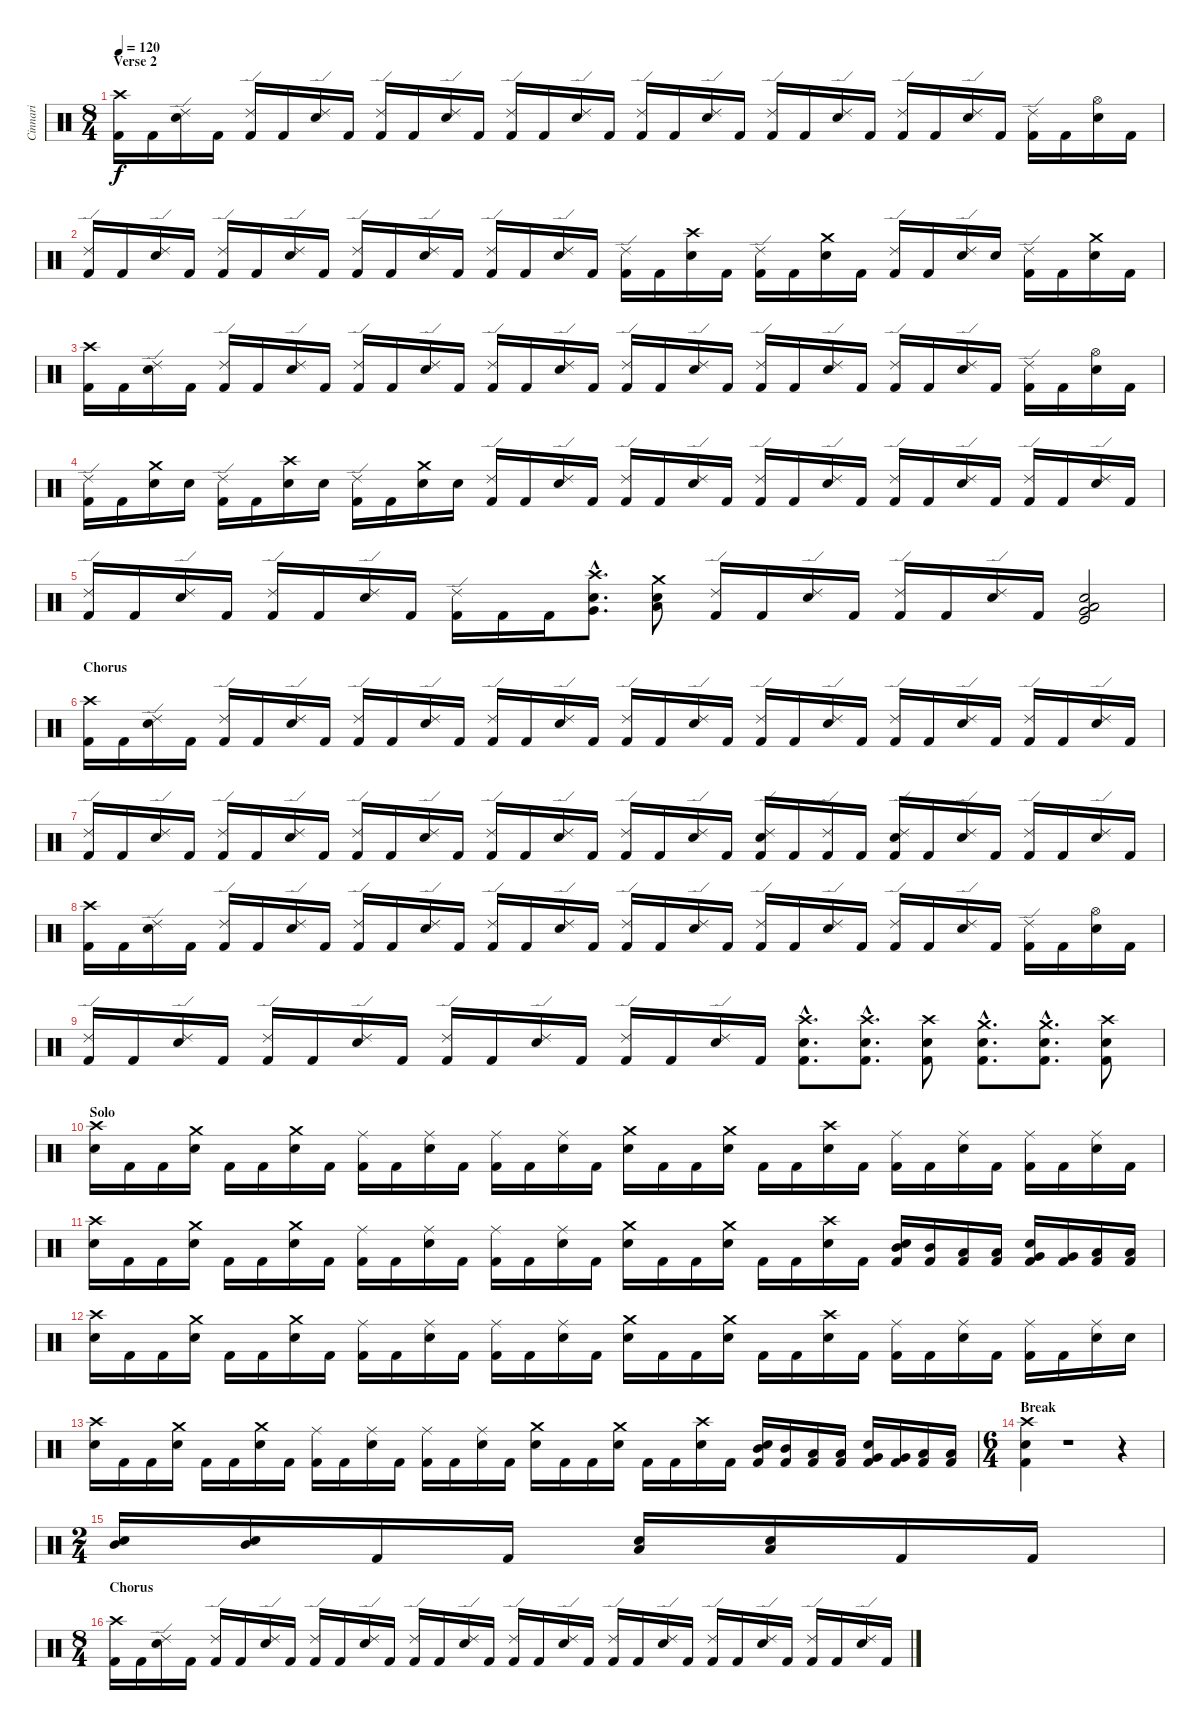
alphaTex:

\track ("Cinnari" "Cinnari") {instrument percussion}
\staff {score}
\articulation defaults
\ts (8 4)
\section ("" "Verse 2")
\tempo 120
\clef neutral
\ks c
("Crash high (hit)" "Kick (hit) 2").16{dy f} "Kick (hit) 2".16 ("Ride (edge) 2" "Snare (hit) 2").16 "Kick (hit) 2".16 ("Ride (edge) 2" "Kick (hit) 2").16 "Kick (hit) 2".16 ("Ride (edge) 2" "Snare (hit) 2").16 "Kick (hit) 2".16 ("Ride (edge) 2" "Kick (hit) 2").16 "Kick (hit) 2".16 ("Ride (edge) 2" "Snare (hit) 2").16 "Kick (hit) 2".16 ("Ride (edge) 2" "Kick (hit) 2").16 "Kick (hit) 2".16 ("Ride (edge) 2" "Snare (hit) 2").16 "Kick (hit) 2".16 ("Ride (edge) 2" "Kick (hit) 2").16 "Kick (hit) 2".16 ("Ride (edge) 2" "Snare (hit) 2").16 "Kick (hit) 2".16 ("Ride (edge) 2" "Kick (hit) 2").16 "Kick (hit) 2".16 ("Ride (edge) 2" "Snare (hit) 2").16 "Kick (hit) 2".16 ("Ride (edge) 2" "Kick (hit) 2").16 "Kick (hit) 2".16 ("Ride (edge) 2" "Snare (hit) 2").16 "Kick (hit) 2".16 ("Ride (edge) 2" "Kick (hit) 2").16 "Kick (hit) 2".16 ("Hi-Hat (open)" "Snare (hit) 2").16 "Kick (hit) 2".16 |
("Ride (edge) 2" "Kick (hit) 2").16 "Kick (hit) 2".16 ("Ride (edge) 2" "Snare (hit) 2").16 "Kick (hit) 2".16 ("Ride (edge) 2" "Kick (hit) 2").16 "Kick (hit) 2".16 ("Ride (edge) 2" "Snare (hit) 2").16 "Kick (hit) 2".16 ("Ride (edge) 2" "Kick (hit) 2").16 "Kick (hit) 2".16 ("Ride (edge) 2" "Snare (hit) 2").16 "Kick (hit) 2".16 ("Ride (edge) 2" "Kick (hit) 2").16 "Kick (hit) 2".16 ("Ride (edge) 2" "Snare (hit) 2").16 "Kick (hit) 2".16 ("Ride (edge) 2" "Kick (hit) 2").16 "Kick (hit) 2".16 ("Crash high (hit)" "Snare (hit) 2").16 "Kick (hit) 2".16 ("Ride (edge) 2" "Kick (hit) 2").16 "Kick (hit) 2".16 ("Crash medium (hit)" "Snare (hit) 2").16 "Kick (hit) 2".16 ("Ride (edge) 2" "Kick (hit) 2").16 "Kick (hit) 2".16 ("Ride (edge) 2" "Snare (hit) 2").16 "Snare (hit) 2".16 ("Ride (edge) 2" "Kick (hit) 2").16 "Kick (hit) 2".16 ("Crash medium (hit)" "Snare (hit) 2").16 "Kick (hit) 2".16 |
("Crash high (hit)" "Kick (hit) 2").16 "Kick (hit) 2".16 ("Ride (edge) 2" "Snare (hit) 2").16 "Kick (hit) 2".16 ("Ride (edge) 2" "Kick (hit) 2").16 "Kick (hit) 2".16 ("Ride (edge) 2" "Snare (hit) 2").16 "Kick (hit) 2".16 ("Ride (edge) 2" "Kick (hit) 2").16 "Kick (hit) 2".16 ("Ride (edge) 2" "Snare (hit) 2").16 "Kick (hit) 2".16 ("Ride (edge) 2" "Kick (hit) 2").16 "Kick (hit) 2".16 ("Ride (edge) 2" "Snare (hit) 2").16 "Kick (hit) 2".16 ("Ride (edge) 2" "Kick (hit) 2").16 "Kick (hit) 2".16 ("Ride (edge) 2" "Snare (hit) 2").16 "Kick (hit) 2".16 ("Ride (edge) 2" "Kick (hit) 2").16 "Kick (hit) 2".16 ("Ride (edge) 2" "Snare (hit) 2").16 "Kick (hit) 2".16 ("Ride (edge) 2" "Kick (hit) 2").16 "Kick (hit) 2".16 ("Ride (edge) 2" "Snare (hit) 2").16 "Kick (hit) 2".16 ("Ride (edge) 2" "Kick (hit) 2").16 "Kick (hit) 2".16 ("Hi-Hat (open)" "Snare (hit) 2").16 "Kick (hit) 2".16 |
("Ride (edge) 2" "Kick (hit) 2").16 "Kick (hit) 2".16 ("Crash medium (hit)" "Snare (hit) 2").16 "Snare (hit) 2".16 ("Ride (edge) 2" "Kick (hit) 2").16 "Kick (hit) 2".16 ("Crash high (hit)" "Snare (hit) 2").16 "Snare (hit) 2".16 ("Ride (edge) 2" "Kick (hit) 2").16 "Kick (hit) 2".16 ("Crash medium (hit)" "Snare (hit) 2").16 "Snare (hit) 2".16 ("Ride (edge) 2" "Kick (hit) 2").16 "Kick (hit) 2".16 ("Ride (edge) 2" "Snare (hit) 2").16 "Kick (hit) 2".16 ("Ride (edge) 2" "Kick (hit) 2").16 "Kick (hit) 2".16 ("Ride (edge) 2" "Snare (hit) 2").16 "Kick (hit) 2".16 ("Ride (edge) 2" "Kick (hit) 2").16 "Kick (hit) 2".16 ("Ride (edge) 2" "Snare (hit) 2").16 "Kick (hit) 2".16 ("Ride (edge) 2" "Kick (hit) 2").16 "Kick (hit) 2".16 ("Ride (edge) 2" "Snare (hit) 2").16 "Kick (hit) 2".16 ("Ride (edge) 2" "Kick (hit) 2").16 "Kick (hit) 2".16 ("Ride (edge) 2" "Snare (hit) 2").16 "Kick (hit) 2".16 |
("Ride (edge) 2" "Kick (hit) 2").16 "Kick (hit) 2".16 ("Ride (edge) 2" "Snare (hit) 2").16 "Kick (hit) 2".16 ("Ride (edge) 2" "Kick (hit) 2").16 "Kick (hit) 2".16 ("Ride (edge) 2" "Snare (hit) 2").16 "Kick (hit) 2".16 ("Ride (edge) 2" "Kick (hit) 2").16 "Kick (hit) 2".16 "Kick (hit) 2".16 ("Crash high (hit)"{hac} "Very Low Tom (hit)"{hac} "Snare (hit) 2"{hac}).8{d} ("Crash medium (hit)" "Low Floor Tom (hit)" "Snare (hit) 2").8 ("Ride (edge) 2" "Kick (hit) 2").16 "Kick (hit) 2".16 ("Ride (edge) 2" "Snare (hit) 2").16 "Kick (hit) 2".16 ("Ride (edge) 2" "Kick (hit) 2").16 "Kick (hit) 2".16 ("Ride (edge) 2" "Snare (hit) 2").16 "Kick (hit) 2".16 ("Very Low Tom (hit)" "Low Floor Tom (hit)" "Snare (hit) 2" "Kick (hit)").2 |
\section ("" "Chorus")
("Crash high (hit)" "Kick (hit) 2").16 "Kick (hit) 2".16 ("Ride (edge) 2" "Snare (hit) 2").16 "Kick (hit) 2".16 ("Ride (edge) 2" "Kick (hit) 2").16 "Kick (hit) 2".16 ("Ride (edge) 2" "Snare (hit) 2").16 "Kick (hit) 2".16 ("Ride (edge) 2" "Kick (hit) 2").16 "Kick (hit) 2".16 ("Ride (edge) 2" "Snare (hit) 2").16 "Kick (hit) 2".16 ("Ride (edge) 2" "Kick (hit) 2").16 "Kick (hit) 2".16 ("Ride (edge) 2" "Snare (hit) 2").16 "Kick (hit) 2".16 ("Ride (edge) 2" "Kick (hit) 2").16 "Kick (hit) 2".16 ("Ride (edge) 2" "Snare (hit) 2").16 "Kick (hit) 2".16 ("Ride (edge) 2" "Kick (hit) 2").16 "Kick (hit) 2".16 ("Ride (edge) 2" "Snare (hit) 2").16 "Kick (hit) 2".16 ("Ride (edge) 2" "Kick (hit) 2").16 "Kick (hit) 2".16 ("Ride (edge) 2" "Snare (hit) 2").16 "Kick (hit) 2".16 ("Ride (edge) 2" "Kick (hit) 2").16 "Kick (hit) 2".16 ("Ride (edge) 2" "Snare (hit) 2").16 "Kick (hit) 2".16 |
("Ride (edge) 2" "Kick (hit) 2").16 "Kick (hit) 2".16 ("Ride (edge) 2" "Snare (hit) 2").16 "Kick (hit) 2".16 ("Ride (edge) 2" "Kick (hit) 2").16 "Kick (hit) 2".16 ("Ride (edge) 2" "Snare (hit) 2").16 "Kick (hit) 2".16 ("Ride (edge) 2" "Kick (hit) 2").16 "Kick (hit) 2".16 ("Ride (edge) 2" "Snare (hit) 2").16 "Kick (hit) 2".16 ("Ride (edge) 2" "Kick (hit) 2").16 "Kick (hit) 2".16 ("Ride (edge) 2" "Snare (hit) 2").16 "Kick (hit) 2".16 ("Ride (edge) 2" "Kick (hit) 2").16 "Kick (hit) 2".16 ("Ride (edge) 2" "Snare (hit) 2").16 "Kick (hit) 2".16 ("Ride (edge) 2" "Snare (hit) 2" "Kick (hit) 2").16 "Kick (hit) 2".16 ("Ride (edge) 2" "Kick (hit) 2").16 "Kick (hit) 2".16 ("Ride (edge) 2" "Snare (hit) 2" "Kick (hit) 2").16 "Kick (hit) 2".16 ("Ride (edge) 2" "Snare (hit) 2").16 "Kick (hit) 2".16 ("Ride (edge) 2" "Kick (hit) 2").16 "Kick (hit) 2".16 ("Ride (edge) 2" "Snare (hit) 2").16 "Kick (hit) 2".16 |
("Crash high (hit)" "Kick (hit) 2").16 "Kick (hit) 2".16 ("Ride (edge) 2" "Snare (hit) 2").16 "Kick (hit) 2".16 ("Ride (edge) 2" "Kick (hit) 2").16 "Kick (hit) 2".16 ("Ride (edge) 2" "Snare (hit) 2").16 "Kick (hit) 2".16 ("Ride (edge) 2" "Kick (hit) 2").16 "Kick (hit) 2".16 ("Ride (edge) 2" "Snare (hit) 2").16 "Kick (hit) 2".16 ("Ride (edge) 2" "Kick (hit) 2").16 "Kick (hit) 2".16 ("Ride (edge) 2" "Snare (hit) 2").16 "Kick (hit) 2".16 ("Ride (edge) 2" "Kick (hit) 2").16 "Kick (hit) 2".16 ("Ride (edge) 2" "Snare (hit) 2").16 "Kick (hit) 2".16 ("Ride (edge) 2" "Kick (hit) 2").16 "Kick (hit) 2".16 ("Ride (edge) 2" "Snare (hit) 2").16 "Kick (hit) 2".16 ("Ride (edge) 2" "Kick (hit) 2").16 "Kick (hit) 2".16 ("Ride (edge) 2" "Snare (hit) 2").16 "Kick (hit) 2".16 ("Ride (edge) 2" "Kick (hit) 2").16 "Kick (hit) 2".16 ("Hi-Hat (open)" "Snare (hit) 2").16 "Kick (hit) 2".16 |
("Ride (edge) 2" "Kick (hit) 2").16 "Kick (hit) 2".16 ("Ride (edge) 2" "Snare (hit) 2").16 "Kick (hit) 2".16 ("Ride (edge) 2" "Kick (hit) 2").16 "Kick (hit) 2".16 ("Ride (edge) 2" "Snare (hit) 2").16 "Kick (hit) 2".16 ("Ride (edge) 2" "Kick (hit) 2").16 "Kick (hit) 2".16 ("Ride (edge) 2" "Snare (hit) 2").16 "Kick (hit) 2".16 ("Ride (edge) 2" "Kick (hit) 2").16 "Kick (hit) 2".16 ("Ride (edge) 2" "Snare (hit) 2").16 "Kick (hit) 2".16 ("Crash high (hit)"{hac} "Snare (hit) 2"{hac} "Kick (hit) 2"{hac}).8{d} ("Crash high (hit)"{hac} "Snare (hit) 2"{hac} "Kick (hit) 2"{hac}).8{d} ("Crash high (hit)" "Snare (hit) 2" "Kick (hit) 2").8 ("Crash medium (hit)"{hac} "Snare (hit) 2"{hac} "Kick (hit) 2"{hac}).8{d} ("Crash medium (hit)"{hac} "Snare (hit) 2"{hac} "Kick (hit) 2"{hac}).8{d} ("Crash high (hit)" "Snare (hit) 2" "Kick (hit) 2").8 |
\section ("" "Solo")
("Crash high (hit)" "Snare (hit) 2").16 "Kick (hit) 2".16 "Kick (hit) 2".16 ("Crash medium (hit)" "Snare (hit) 2").16 "Kick (hit) 2".16 "Kick (hit) 2".16 ("Crash medium (hit)" "Snare (hit) 2").16 "Kick (hit) 2".16 ("Ride (middle)" "Kick (hit) 2").16 "Kick (hit) 2".16 ("Ride (middle)" "Snare (hit) 2").16 "Kick (hit) 2".16 ("Ride (middle)" "Kick (hit) 2").16 "Kick (hit) 2".16 ("Ride (middle)" "Snare (hit) 2").16 "Kick (hit) 2".16 ("Crash medium (hit)" "Snare (hit) 2").16 "Kick (hit) 2".16 "Kick (hit) 2".16 ("Crash medium (hit)" "Snare (hit) 2").16 "Kick (hit) 2".16 "Kick (hit) 2".16 ("Crash high (hit)" "Snare (hit) 2").16 "Kick (hit) 2".16 ("Ride (middle)" "Kick (hit) 2").16 "Kick (hit) 2".16 ("Ride (middle)" "Snare (hit) 2").16 "Kick (hit) 2".16 ("Ride (middle)" "Kick (hit) 2").16 "Kick (hit) 2".16 ("Ride (middle)" "Snare (hit) 2").16 "Kick (hit) 2".16 |
("Crash high (hit)" "Snare (hit) 2").16 "Kick (hit) 2".16 "Kick (hit) 2".16 ("Crash medium (hit)" "Snare (hit) 2").16 "Kick (hit) 2".16 "Kick (hit) 2".16 ("Crash medium (hit)" "Snare (hit) 2").16 "Kick (hit) 2".16 ("Ride (middle)" "Kick (hit) 2").16 "Kick (hit) 2".16 ("Ride (middle)" "Snare (hit) 2").16 "Kick (hit) 2".16 ("Ride (middle)" "Kick (hit) 2").16 "Kick (hit) 2".16 ("Ride (middle)" "Snare (hit) 2").16 "Kick (hit) 2".16 ("Crash medium (hit)" "Snare (hit) 2").16 "Kick (hit) 2".16 "Kick (hit) 2".16 ("Crash medium (hit)" "Snare (hit) 2").16 "Kick (hit) 2".16 "Kick (hit) 2".16 ("Crash high (hit)" "Snare (hit) 2").16 "Kick (hit) 2".16 ("Mid Tom (hit)" "Snare (hit) 2" "Kick (hit) 2").16 ("Mid Tom (hit)" "Kick (hit) 2").16 ("Low Tom (hit)" "Kick (hit) 2").16 ("Low Tom (hit)" "Kick (hit) 2").16 ("Very Low Tom (hit)" "Snare (hit) 2" "Kick (hit) 2").16 ("Very Low Tom (hit)" "Kick (hit) 2").16 ("Low Floor Tom (hit)" "Kick (hit) 2").16 ("Low Floor Tom (hit)" "Kick (hit) 2").16 |
("Crash high (hit)" "Snare (hit) 2").16 "Kick (hit) 2".16 "Kick (hit) 2".16 ("Crash medium (hit)" "Snare (hit) 2").16 "Kick (hit) 2".16 "Kick (hit) 2".16 ("Crash medium (hit)" "Snare (hit) 2").16 "Kick (hit) 2".16 ("Ride (middle)" "Kick (hit) 2").16 "Kick (hit) 2".16 ("Ride (middle)" "Snare (hit) 2").16 "Kick (hit) 2".16 ("Ride (middle)" "Kick (hit) 2").16 "Kick (hit) 2".16 ("Ride (middle)" "Snare (hit) 2").16 "Kick (hit) 2".16 ("Crash medium (hit)" "Snare (hit) 2").16 "Kick (hit) 2".16 "Kick (hit) 2".16 ("Crash medium (hit)" "Snare (hit) 2").16 "Kick (hit) 2".16 "Kick (hit) 2".16 ("Crash high (hit)" "Snare (hit) 2").16 "Kick (hit) 2".16 ("Ride (middle)" "Kick (hit) 2").16 "Kick (hit) 2".16 ("Ride (middle)" "Snare (hit) 2").16 "Kick (hit) 2".16 ("Ride (middle)" "Kick (hit) 2").16 "Kick (hit) 2".16 ("Ride (middle)" "Snare (hit) 2").16 "Snare (hit) 2".16 |
("Crash high (hit)" "Snare (hit) 2").16 "Kick (hit) 2".16 "Kick (hit) 2".16 ("Crash medium (hit)" "Snare (hit) 2").16 "Kick (hit) 2".16 "Kick (hit) 2".16 ("Crash medium (hit)" "Snare (hit) 2").16 "Kick (hit) 2".16 ("Ride (middle)" "Kick (hit) 2").16 "Kick (hit) 2".16 ("Ride (middle)" "Snare (hit) 2").16 "Kick (hit) 2".16 ("Ride (middle)" "Kick (hit) 2").16 "Kick (hit) 2".16 ("Ride (middle)" "Snare (hit) 2").16 "Kick (hit) 2".16 ("Crash medium (hit)" "Snare (hit) 2").16 "Kick (hit) 2".16 "Kick (hit) 2".16 ("Crash medium (hit)" "Snare (hit) 2").16 "Kick (hit) 2".16 "Kick (hit) 2".16 ("Crash high (hit)" "Snare (hit) 2").16 "Kick (hit) 2".16 ("Mid Tom (hit)" "Snare (hit) 2" "Kick (hit) 2").16 ("Mid Tom (hit)" "Kick (hit) 2").16 ("Low Tom (hit)" "Kick (hit) 2").16 ("Low Tom (hit)" "Kick (hit) 2").16 ("Very Low Tom (hit)" "Snare (hit) 2" "Kick (hit) 2").16 ("Very Low Tom (hit)" "Kick (hit) 2").16 ("Low Floor Tom (hit)" "Kick (hit) 2").16 ("Low Floor Tom (hit)" "Kick (hit) 2").16 |
\ts (6 4)
\section ("" "Break")
("Crash high (hit)" "Snare (hit) 2" "Kick (hit) 2").4 r.1 r.4 |
\ts (2 4)
("Mid Tom (hit)" "Snare (hit) 2").16 ("Mid Tom (hit)" "Snare (hit) 2").16 "Kick (hit) 2".16 "Kick (hit) 2".16 ("Low Tom (hit)" "Snare (hit) 2").16 ("Low Tom (hit)" "Snare (hit) 2").16 "Kick (hit) 2".16 "Kick (hit) 2".16 |
\ts (8 4)
\section ("" "Chorus")
("Crash high (hit)" "Kick (hit) 2").16 "Kick (hit) 2".16 ("Ride (edge) 2" "Snare (hit) 2").16 "Kick (hit) 2".16 ("Ride (edge) 2" "Kick (hit) 2").16 "Kick (hit) 2".16 ("Ride (edge) 2" "Snare (hit) 2").16 "Kick (hit) 2".16 ("Ride (edge) 2" "Kick (hit) 2").16 "Kick (hit) 2".16 ("Ride (edge) 2" "Snare (hit) 2").16 "Kick (hit) 2".16 ("Ride (edge) 2" "Kick (hit) 2").16 "Kick (hit) 2".16 ("Ride (edge) 2" "Snare (hit) 2").16 "Kick (hit) 2".16 ("Ride (edge) 2" "Kick (hit) 2").16 "Kick (hit) 2".16 ("Ride (edge) 2" "Snare (hit) 2").16 "Kick (hit) 2".16 ("Ride (edge) 2" "Kick (hit) 2").16 "Kick (hit) 2".16 ("Ride (edge) 2" "Snare (hit) 2").16 "Kick (hit) 2".16 ("Ride (edge) 2" "Kick (hit) 2").16 "Kick (hit) 2".16 ("Ride (edge) 2" "Snare (hit) 2").16 "Kick (hit) 2".16 ("Ride (edge) 2" "Kick (hit) 2").16 "Kick (hit) 2".16 ("Ride (edge) 2" "Snare (hit) 2").16 "Kick (hit) 2".16
